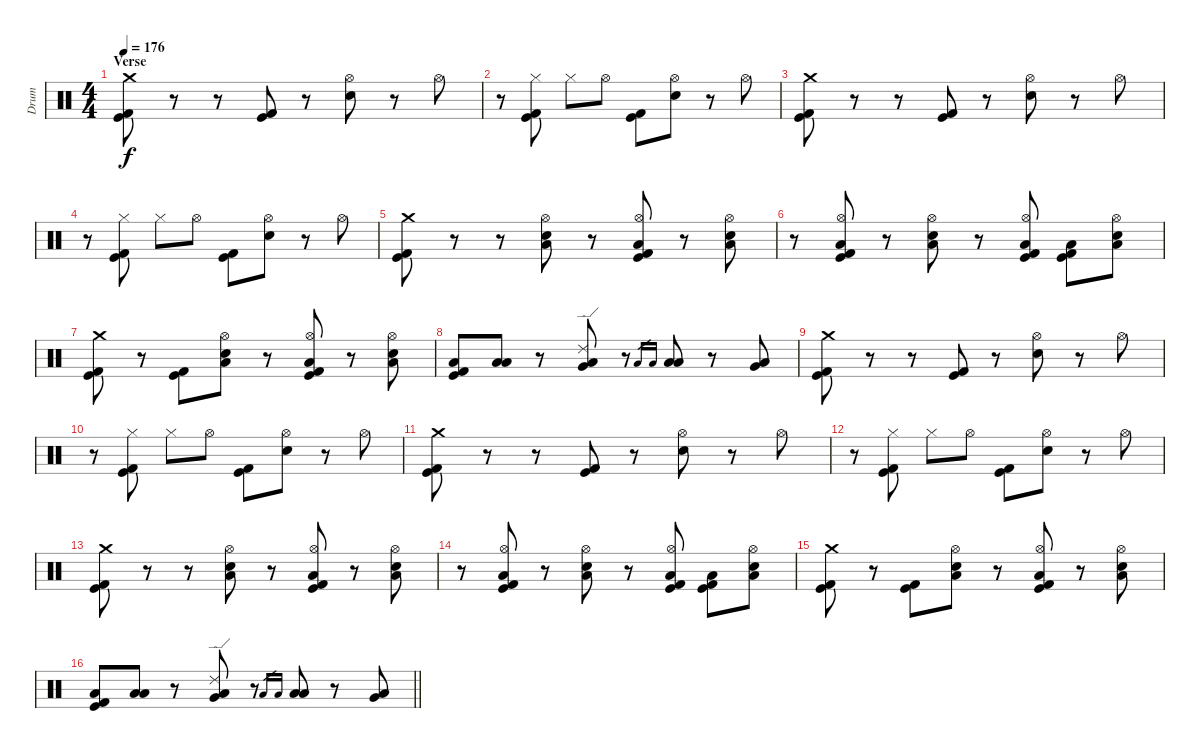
\track ("Drum" "Drum") {instrument percussion}
\staff {score}
\articulation defaults
\ts (4 4)
\section ("" "Verse")
\tempo 176
\clef neutral
\ks c
("Crash medium (hit)" "Kick (hit)" "Kick (hit) 2").8{dy f} r.8 r.8 ("Kick (hit)" "Kick (hit) 2").8 r.8 ("Hi-Hat (open)" "Electric Snare (hit)").8 r.8 "Hi-Hat (open)".8 |
r.8 ("Hi-Hat (closed)" "Kick (hit)" "Kick (hit) 2").8 "Hi-Hat (closed)".8 "Hi-Hat (open)".8 ("Kick (hit)" "Kick (hit) 2").8 ("Hi-Hat (open)" "Electric Snare (hit)").8 r.8 "Hi-Hat (open)".8 |
("Crash medium (hit)" "Kick (hit)" "Kick (hit) 2").8 r.8 r.8 ("Kick (hit)" "Kick (hit) 2").8 r.8 ("Hi-Hat (open)" "Electric Snare (hit)").8 r.8 "Hi-Hat (open)".8 |
r.8 ("Hi-Hat (closed)" "Kick (hit)" "Kick (hit) 2").8 "Hi-Hat (closed)".8 "Hi-Hat (open)".8 ("Kick (hit)" "Kick (hit) 2").8 ("Hi-Hat (open)" "Electric Snare (hit)").8 r.8 "Hi-Hat (open)".8 |
("Crash medium (hit)" "Kick (hit)" "Kick (hit) 2").8 r.8 r.8 ("Hi-Hat (open)" "Low Floor Tom (hit)" "Electric Snare (hit)").8 r.8 ("Hi-Hat (open)" "Low Floor Tom (hit)" "Kick (hit)" "Kick (hit) 2").8 r.8 ("Hi-Hat (open)" "Low Floor Tom (hit)" "Electric Snare (hit)").8 |
r.8 ("Hi-Hat (open)" "Low Floor Tom (hit)" "Kick (hit)" "Kick (hit) 2").8 r.8 ("Hi-Hat (open)" "Low Floor Tom (hit)" "Electric Snare (hit)").8 r.8 ("Hi-Hat (open)" "Low Floor Tom (hit)" "Kick (hit)" "Kick (hit) 2").8 ("Low Floor Tom (hit)" "Kick (hit)" "Kick (hit) 2").8 ("Hi-Hat (open)" "Low Floor Tom (hit)" "Electric Snare (hit)").8 |
("Crash medium (hit)" "Kick (hit)" "Kick (hit) 2").8 r.8 ("Kick (hit)" "Kick (hit) 2").8 ("Hi-Hat (open)" "Low Floor Tom (hit)" "Electric Snare (hit)").8 r.8 ("Hi-Hat (open)" "Low Floor Tom (hit)" "Kick (hit)" "Kick (hit) 2").8 r.8 ("Hi-Hat (open)" "Low Floor Tom (hit)" "Electric Snare (hit)").8 |
("Low Floor Tom (hit)" "Kick (hit)" "Kick (hit) 2").8 ("Low Floor Tom (hit)" "Low Tom (hit)").8 r.8 ("Ride (edge) 2" "Low Floor Tom (hit)" "Very Low Tom (hit)").8 r.8 "Low Floor Tom (hit)".16{gr} "Low Floor Tom (hit)".16{gr} ("Low Floor Tom (hit)" "Low Floor Tom (hit)").8 r.8 ("Very Low Tom (hit)" "Low Tom (hit)").8 |
("Crash medium (hit)" "Kick (hit)" "Kick (hit) 2").8 r.8 r.8 ("Kick (hit)" "Kick (hit) 2").8 r.8 ("Hi-Hat (open)" "Electric Snare (hit)").8 r.8 "Hi-Hat (open)".8 |
r.8 ("Hi-Hat (closed)" "Kick (hit)" "Kick (hit) 2").8 "Hi-Hat (closed)".8 "Hi-Hat (open)".8 ("Kick (hit)" "Kick (hit) 2").8 ("Hi-Hat (open)" "Electric Snare (hit)").8 r.8 "Hi-Hat (open)".8 |
("Crash medium (hit)" "Kick (hit)" "Kick (hit) 2").8 r.8 r.8 ("Kick (hit)" "Kick (hit) 2").8 r.8 ("Hi-Hat (open)" "Electric Snare (hit)").8 r.8 "Hi-Hat (open)".8 |
r.8 ("Hi-Hat (closed)" "Kick (hit)" "Kick (hit) 2").8 "Hi-Hat (closed)".8 "Hi-Hat (open)".8 ("Kick (hit)" "Kick (hit) 2").8 ("Hi-Hat (open)" "Electric Snare (hit)").8 r.8 "Hi-Hat (open)".8 |
("Crash medium (hit)" "Kick (hit)" "Kick (hit) 2").8 r.8 r.8 ("Hi-Hat (open)" "Low Floor Tom (hit)" "Electric Snare (hit)").8 r.8 ("Hi-Hat (open)" "Low Floor Tom (hit)" "Kick (hit)" "Kick (hit) 2").8 r.8 ("Hi-Hat (open)" "Low Floor Tom (hit)" "Electric Snare (hit)").8 |
r.8 ("Hi-Hat (open)" "Low Floor Tom (hit)" "Kick (hit)" "Kick (hit) 2").8 r.8 ("Hi-Hat (open)" "Low Floor Tom (hit)" "Electric Snare (hit)").8 r.8 ("Hi-Hat (open)" "Low Floor Tom (hit)" "Kick (hit)" "Kick (hit) 2").8 ("Low Floor Tom (hit)" "Kick (hit)" "Kick (hit) 2").8 ("Hi-Hat (open)" "Low Floor Tom (hit)" "Electric Snare (hit)").8 |
("Crash medium (hit)" "Kick (hit)" "Kick (hit) 2").8 r.8 ("Kick (hit)" "Kick (hit) 2").8 ("Hi-Hat (open)" "Low Floor Tom (hit)" "Electric Snare (hit)").8 r.8 ("Hi-Hat (open)" "Low Floor Tom (hit)" "Kick (hit)" "Kick (hit) 2").8 r.8 ("Hi-Hat (open)" "Low Floor Tom (hit)" "Electric Snare (hit)").8 |
\barLineRight lightlight
("Low Floor Tom (hit)" "Kick (hit)" "Kick (hit) 2").8 ("Low Floor Tom (hit)" "Low Tom (hit)").8 r.8 ("Ride (edge) 2" "Low Floor Tom (hit)" "Very Low Tom (hit)").8 r.8 "Low Floor Tom (hit)".16{gr} "Low Floor Tom (hit)".16{gr} ("Low Floor Tom (hit)" "Low Floor Tom (hit)").8 r.8 ("Very Low Tom (hit)" "Low Tom (hit)").8
